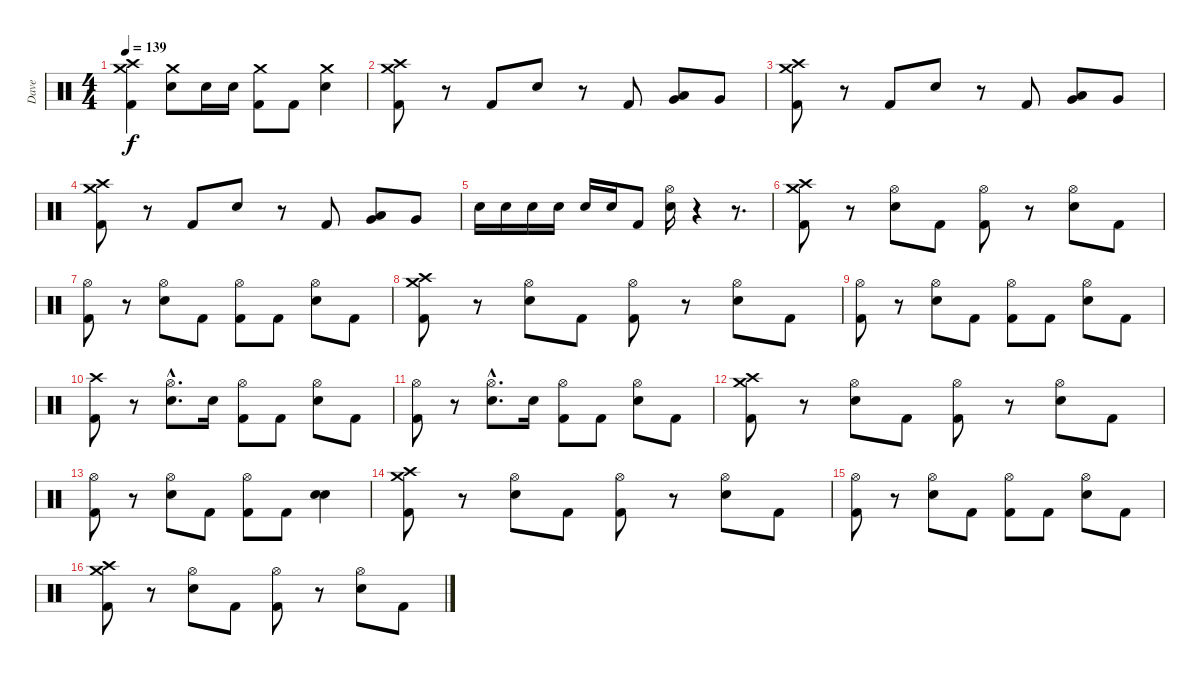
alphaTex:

\track ("Dave" "Dave") {instrument percussion}
\staff {score}
\articulation defaults
\ts (4 4)
\tempo 139
\clef neutral
\ks c
("Crash medium (hit)" "Crash high (hit)" "Kick (hit) 2").4{dy f} ("Crash medium (hit)" "Snare (hit) 2").8 "Snare (hit) 2".16 "Snare (hit) 2".16 ("Crash medium (hit)" "Kick (hit) 2").8 "Kick (hit) 2".8 ("Crash medium (hit)" "Snare (hit) 2").4 |
("Crash medium (hit)" "Crash high (hit)" "Kick (hit) 2").8 r.8 "Kick (hit) 2".8 "Snare (hit) 2".8 r.8 "Kick (hit) 2".8 ("Low Tom (hit)" "Very Low Tom (hit)").8 "Very Low Tom (hit)".8 |
("Crash medium (hit)" "Crash high (hit)" "Kick (hit) 2").8 r.8 "Kick (hit) 2".8 "Snare (hit) 2".8 r.8 "Kick (hit) 2".8 ("Low Tom (hit)" "Very Low Tom (hit)").8 "Very Low Tom (hit)".8 |
("Crash medium (hit)" "Crash high (hit)" "Kick (hit) 2").8 r.8 "Kick (hit) 2".8 "Snare (hit) 2".8 r.8 "Kick (hit) 2".8 ("Low Tom (hit)" "Very Low Tom (hit)").8 "Very Low Tom (hit)".8 |
"Snare (hit) 2".16 "Snare (hit) 2".16 "Snare (hit) 2".16 "Snare (hit) 2".16 "Snare (hit) 2".16 "Snare (hit) 2".16 "Kick (hit) 2".8 ("Hi-Hat (open)" "Snare (hit) 2").16 r.4 r.8{d} |
("Crash medium (hit)" "Crash high (hit)" "Kick (hit) 2").8 r.8 ("Hi-Hat (open)" "Snare (hit) 2").8 "Kick (hit) 2".8 ("Hi-Hat (open)" "Kick (hit) 2").8 r.8 ("Hi-Hat (open)" "Snare (hit) 2").8 "Kick (hit) 2".8 |
("Hi-Hat (open)" "Kick (hit) 2").8 r.8 ("Hi-Hat (open)" "Snare (hit) 2").8 "Kick (hit) 2".8 ("Hi-Hat (open)" "Kick (hit) 2").8 "Kick (hit) 2".8 ("Hi-Hat (open)" "Snare (hit) 2").8 "Kick (hit) 2".8 |
("Crash medium (hit)" "Crash high (hit)" "Kick (hit) 2").8 r.8 ("Hi-Hat (open)" "Snare (hit) 2").8 "Kick (hit) 2".8 ("Hi-Hat (open)" "Kick (hit) 2").8 r.8 ("Hi-Hat (open)" "Snare (hit) 2").8 "Kick (hit) 2".8 |
("Hi-Hat (open)" "Kick (hit) 2").8 r.8 ("Hi-Hat (open)" "Snare (hit) 2").8 "Kick (hit) 2".8 ("Hi-Hat (open)" "Kick (hit) 2").8 "Kick (hit) 2".8 ("Hi-Hat (open)" "Snare (hit) 2").8 "Kick (hit) 2".8 |
("Crash high (hit)" "Kick (hit) 2").8 r.8 ("Hi-Hat (open)"{hac} "Snare (hit) 2"{hac}).8{d} "Snare (hit) 2".16 ("Hi-Hat (open)" "Kick (hit) 2").8 "Kick (hit) 2".8 ("Hi-Hat (open)" "Snare (hit) 2").8 "Kick (hit) 2".8 |
("Hi-Hat (open)" "Kick (hit) 2").8 r.8 ("Hi-Hat (open)"{hac} "Snare (hit) 2"{hac}).8{d} "Snare (hit) 2".16 ("Hi-Hat (open)" "Kick (hit) 2").8 "Kick (hit) 2".8 ("Hi-Hat (open)" "Snare (hit) 2").8 "Kick (hit) 2".8 |
("Crash medium (hit)" "Crash high (hit)" "Kick (hit) 2").8 r.8 ("Hi-Hat (open)" "Snare (hit) 2").8 "Kick (hit) 2".8 ("Hi-Hat (open)" "Kick (hit) 2").8 r.8 ("Hi-Hat (open)" "Snare (hit) 2").8 "Kick (hit) 2".8 |
("Hi-Hat (open)" "Kick (hit) 2").8 r.8 ("Hi-Hat (open)" "Snare (hit) 2").8 "Kick (hit) 2".8 ("Hi-Hat (open)" "Kick (hit) 2").8 "Kick (hit) 2".8 ("Snare (hit) 2" "Snare (hit) 2").4 |
("Crash medium (hit)" "Crash high (hit)" "Kick (hit) 2").8 r.8 ("Hi-Hat (open)" "Snare (hit) 2").8 "Kick (hit) 2".8 ("Hi-Hat (open)" "Kick (hit) 2").8 r.8 ("Hi-Hat (open)" "Snare (hit) 2").8 "Kick (hit) 2".8 |
("Hi-Hat (open)" "Kick (hit) 2").8 r.8 ("Hi-Hat (open)" "Snare (hit) 2").8 "Kick (hit) 2".8 ("Hi-Hat (open)" "Kick (hit) 2").8 "Kick (hit) 2".8 ("Hi-Hat (open)" "Snare (hit) 2").8 "Kick (hit) 2".8 |
("Crash medium (hit)" "Crash high (hit)" "Kick (hit) 2").8 r.8 ("Hi-Hat (open)" "Snare (hit) 2").8 "Kick (hit) 2".8 ("Hi-Hat (open)" "Kick (hit) 2").8 r.8 ("Hi-Hat (open)" "Snare (hit) 2").8 "Kick (hit) 2".8
